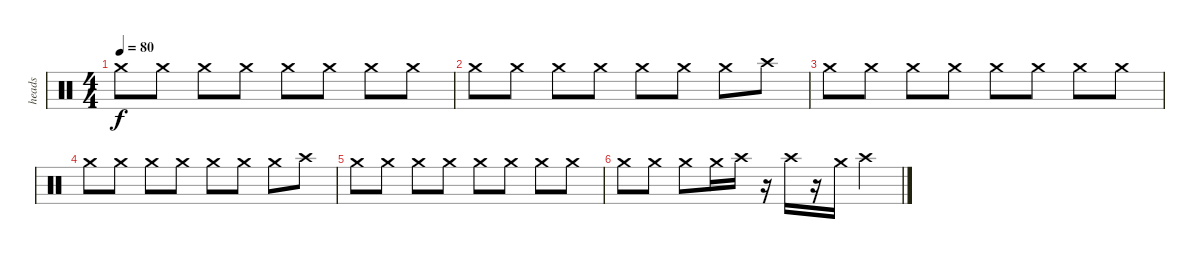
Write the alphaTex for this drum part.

\track ("heads" "heads") {instrument percussion}
\staff {score}
\articulation defaults
\ts (4 4)
\tempo 80
\clef neutral
\ks c "Crash medium (hit)".8{dy f} "Crash medium (hit)".8 "Crash medium (hit)".8 "Crash medium (hit)".8 "Crash medium (hit)".8 "Crash medium (hit)".8 "Crash medium (hit)".8 "Crash medium (hit)".8
|
"Crash medium (hit)".8 "Crash medium (hit)".8 "Crash medium (hit)".8 "Crash medium (hit)".8 "Crash medium (hit)".8 "Crash medium (hit)".8 "Crash medium (hit)".8 "Crash high (hit)".8 |
"Crash medium (hit)".8 "Crash medium (hit)".8 "Crash medium (hit)".8 "Crash medium (hit)".8 "Crash medium (hit)".8 "Crash medium (hit)".8 "Crash medium (hit)".8 "Crash medium (hit)".8 |
"Crash medium (hit)".8 "Crash medium (hit)".8 "Crash medium (hit)".8 "Crash medium (hit)".8 "Crash medium (hit)".8 "Crash medium (hit)".8 "Crash medium (hit)".8 "Crash high (hit)".8 |
"Crash medium (hit)".8 "Crash medium (hit)".8 "Crash medium (hit)".8 "Crash medium (hit)".8 "Crash medium (hit)".8 "Crash medium (hit)".8 "Crash medium (hit)".8 "Crash medium (hit)".8 |
"Crash medium (hit)".8 "Crash medium (hit)".8 "Crash medium (hit)".8 "Crash medium (hit)".16 "Crash high (hit)".16 r.16 "Crash high (hit)".16 r.16 "Crash medium (hit)".16 "Crash high (hit)".4
